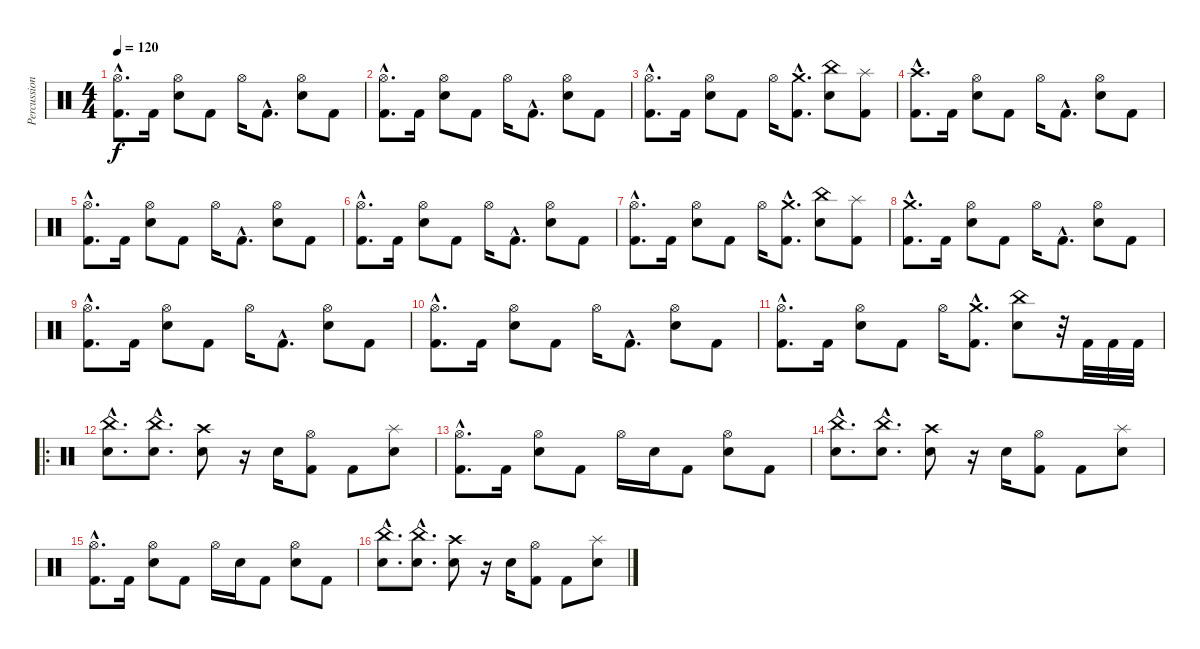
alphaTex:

\track ("Percussions" "Percussion") {instrument percussion}
\staff {score}
\articulation defaults
\ts (4 4)
\tempo 120
\clef neutral
\ks c
("Hi-Hat (open)"{hac} "Kick (hit) 2"{hac}).8{d dy f} "Kick (hit) 2".16 ("Hi-Hat (open)" "Electric Snare (hit)").8 "Kick (hit) 2".8 "Hi-Hat (open)".16 "Kick (hit) 2"{hac}.8{d} ("Hi-Hat (open)" "Electric Snare (hit)").8 "Kick (hit) 2".8 |
("Hi-Hat (open)"{hac} "Kick (hit) 2"{hac}).8{d} "Kick (hit) 2".16 ("Hi-Hat (open)" "Electric Snare (hit)").8 "Kick (hit) 2".8 "Hi-Hat (open)".16 "Kick (hit) 2"{hac}.8{d} ("Hi-Hat (open)" "Electric Snare (hit)").8 "Kick (hit) 2".8 |
("Hi-Hat (open)"{hac} "Kick (hit) 2"{hac}).8{d} "Kick (hit) 2".16 ("Hi-Hat (open)" "Electric Snare (hit)").8 "Kick (hit) 2".8 "Hi-Hat (open)".16 ("Crash medium (hit)"{hac} "Kick (hit) 2"{hac}).8{d} ("China (hit)" "Electric Snare (hit)").8 ("Splash (hit)" "Kick (hit) 2").8 |
("Crash high (hit)"{hac} "Kick (hit) 2"{hac}).8{d} "Kick (hit) 2".16 ("Hi-Hat (open)" "Electric Snare (hit)").8 "Kick (hit) 2".8 "Hi-Hat (open)".16 "Kick (hit) 2"{hac}.8{d} ("Hi-Hat (open)" "Electric Snare (hit)").8 "Kick (hit) 2".8 |
("Hi-Hat (open)"{hac} "Kick (hit) 2"{hac}).8{d} "Kick (hit) 2".16 ("Hi-Hat (open)" "Electric Snare (hit)").8 "Kick (hit) 2".8 "Hi-Hat (open)".16 "Kick (hit) 2"{hac}.8{d} ("Hi-Hat (open)" "Electric Snare (hit)").8 "Kick (hit) 2".8 |
("Hi-Hat (open)"{hac} "Kick (hit) 2"{hac}).8{d} "Kick (hit) 2".16 ("Hi-Hat (open)" "Electric Snare (hit)").8 "Kick (hit) 2".8 "Hi-Hat (open)".16 "Kick (hit) 2"{hac}.8{d} ("Hi-Hat (open)" "Electric Snare (hit)").8 "Kick (hit) 2".8 |
("Hi-Hat (open)"{hac} "Kick (hit) 2"{hac}).8{d} "Kick (hit) 2".16 ("Hi-Hat (open)" "Electric Snare (hit)").8 "Kick (hit) 2".8 "Hi-Hat (open)".16 ("Crash medium (hit)"{hac} "Kick (hit) 2"{hac}).8{d} ("China (hit)" "Electric Snare (hit)").8 ("Splash (hit)" "Kick (hit) 2").8 |
("Crash medium (hit)"{hac} "Kick (hit) 2"{hac}).8{d} "Kick (hit) 2".16 ("Hi-Hat (open)" "Electric Snare (hit)").8 "Kick (hit) 2".8 "Hi-Hat (open)".16 "Kick (hit) 2"{hac}.8{d} ("Hi-Hat (open)" "Electric Snare (hit)").8 "Kick (hit) 2".8 |
("Hi-Hat (open)"{hac} "Kick (hit) 2"{hac}).8{d} "Kick (hit) 2".16 ("Hi-Hat (open)" "Electric Snare (hit)").8 "Kick (hit) 2".8 "Hi-Hat (open)".16 "Kick (hit) 2"{hac}.8{d} ("Hi-Hat (open)" "Electric Snare (hit)").8 "Kick (hit) 2".8 |
("Hi-Hat (open)"{hac} "Kick (hit) 2"{hac}).8{d} "Kick (hit) 2".16 ("Hi-Hat (open)" "Electric Snare (hit)").8 "Kick (hit) 2".8 "Hi-Hat (open)".16 "Kick (hit) 2"{hac}.8{d} ("Hi-Hat (open)" "Electric Snare (hit)").8 "Kick (hit) 2".8 |
("Hi-Hat (open)"{hac} "Kick (hit) 2"{hac}).8{d} "Kick (hit) 2".16 ("Hi-Hat (open)" "Electric Snare (hit)").8 "Kick (hit) 2".8 "Hi-Hat (open)".16 ("Crash medium (hit)"{hac} "Kick (hit) 2"{hac}).8{d} ("China (hit)" "Electric Snare (hit)").8 r.32 "Kick (hit) 2".32 "Kick (hit) 2".32 "Kick (hit) 2".32 |
\ro
("China (hit)"{hac} "Electric Snare (hit)"{hac}).8{d} ("China (hit)"{hac} "Electric Snare (hit)"{hac}).8{d} ("Crash high (hit)" "Electric Snare (hit)").8 r.16 "Electric Snare (hit)".16 ("Hi-Hat (open)" "Kick (hit) 2").8 "Kick (hit) 2".8 ("Splash (hit)" "Electric Snare (hit)").8 |
("Hi-Hat (open)"{hac} "Kick (hit) 2"{hac}).8{d} "Kick (hit) 2".16 ("Hi-Hat (open)" "Electric Snare (hit)").8 "Kick (hit) 2".8 "Hi-Hat (open)".16 "Electric Snare (hit)".16 "Kick (hit) 2".8 ("Hi-Hat (open)" "Electric Snare (hit)").8 "Kick (hit) 2".8 |
("China (hit)"{hac} "Electric Snare (hit)"{hac}).8{d} ("China (hit)"{hac} "Electric Snare (hit)"{hac}).8{d} ("Crash high (hit)" "Electric Snare (hit)").8 r.16 "Electric Snare (hit)".16 ("Hi-Hat (open)" "Kick (hit) 2").8 "Kick (hit) 2".8 ("Splash (hit)" "Electric Snare (hit)").8 |
("Hi-Hat (open)"{hac} "Kick (hit) 2"{hac}).8{d} "Kick (hit) 2".16 ("Hi-Hat (open)" "Electric Snare (hit)").8 "Kick (hit) 2".8 "Hi-Hat (open)".16 "Electric Snare (hit)".16 "Kick (hit) 2".8 ("Hi-Hat (open)" "Electric Snare (hit)").8 "Kick (hit) 2".8 |
("China (hit)"{hac} "Electric Snare (hit)"{hac}).8{d} ("China (hit)"{hac} "Electric Snare (hit)"{hac}).8{d} ("Crash high (hit)" "Electric Snare (hit)").8 r.16 "Electric Snare (hit)".16 ("Hi-Hat (open)" "Kick (hit) 2").8 "Kick (hit) 2".8 ("Splash (hit)" "Electric Snare (hit)").8
